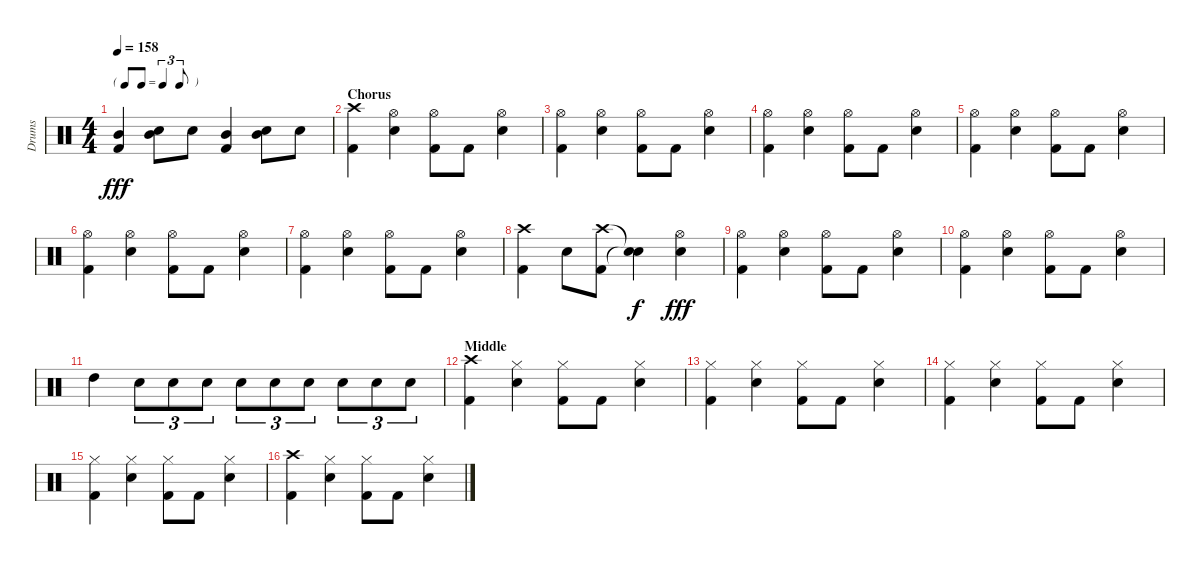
\track ("Drums" "Drums") {instrument percussion}
\staff {score}
\articulation defaults
\ts (4 4)
\tf triplet8th
\tempo 158
\clef neutral
\ks c
("Mid Tom (hit)" "Kick (hit) 2").4{dy fff} ("Mid Tom (hit)" "Snare (hit) 2").8 "Snare (hit) 2".8 ("Mid Tom (hit)" "Kick (hit) 2").4 ("Mid Tom (hit)" "Snare (hit) 2").8 "Snare (hit) 2".8 |
\section ("" "Chorus")
("Crash high (hit)" "Kick (hit) 2").4 ("Hi-Hat (open)" "Snare (hit) 2").4 ("Hi-Hat (open)" "Kick (hit) 2").8 "Kick (hit) 2".8 ("Hi-Hat (open)" "Snare (hit) 2").4 |
("Hi-Hat (open)" "Kick (hit) 2").4 ("Hi-Hat (open)" "Snare (hit) 2").4 ("Hi-Hat (open)" "Kick (hit) 2").8 "Kick (hit) 2".8 ("Hi-Hat (open)" "Snare (hit) 2").4 |
("Hi-Hat (open)" "Kick (hit) 2").4 ("Hi-Hat (open)" "Snare (hit) 2").4 ("Hi-Hat (open)" "Kick (hit) 2").8 "Kick (hit) 2".8 ("Hi-Hat (open)" "Snare (hit) 2").4 |
("Hi-Hat (open)" "Kick (hit) 2").4 ("Hi-Hat (open)" "Snare (hit) 2").4 ("Hi-Hat (open)" "Kick (hit) 2").8 "Kick (hit) 2".8 ("Hi-Hat (open)" "Snare (hit) 2").4 |
("Hi-Hat (open)" "Kick (hit) 2").4 ("Hi-Hat (open)" "Snare (hit) 2").4 ("Hi-Hat (open)" "Kick (hit) 2").8 "Kick (hit) 2".8 ("Hi-Hat (open)" "Snare (hit) 2").4 |
("Hi-Hat (open)" "Kick (hit) 2").4 ("Hi-Hat (open)" "Snare (hit) 2").4 ("Hi-Hat (open)" "Kick (hit) 2").8 "Kick (hit) 2".8 ("Hi-Hat (open)" "Snare (hit) 2").4 |
("Crash high (hit)" "Kick (hit) 2").4 "Snare (hit) 2".8 ("Crash high (hit)" "Kick (hit) 2").8 ("Snare (hit)"{t} "Snare (hit)"{t}).4{dy f} ("Hi-Hat (open)" "Snare (hit) 2").4{dy fff} |
("Hi-Hat (open)" "Kick (hit) 2").4 ("Hi-Hat (open)" "Snare (hit) 2").4 ("Hi-Hat (open)" "Kick (hit) 2").8 "Kick (hit) 2".8 ("Hi-Hat (open)" "Snare (hit) 2").4 |
("Hi-Hat (open)" "Kick (hit) 2").4 ("Hi-Hat (open)" "Snare (hit) 2").4 ("Hi-Hat (open)" "Kick (hit) 2").8 "Kick (hit) 2".8 ("Hi-Hat (open)" "Snare (hit) 2").4 |
"High Tom (hit)".4 "Snare (hit) 2".8{tu (3 2)} "Snare (hit) 2".8{tu (3 2)} "Snare (hit) 2".8{tu (3 2)} "Snare (hit) 2".8{tu (3 2)} "Snare (hit) 2".8{tu (3 2)} "Snare (hit) 2".8{tu (3 2)} "Snare (hit) 2".8{tu (3 2)} "Snare (hit) 2".8{tu (3 2)} "Snare (hit) 2".8{tu (3 2)} |
\section ("" "Middle")
("Crash high (hit)" "Kick (hit) 2").4 ("Hi-Hat (closed)" "Snare (hit) 2").4 ("Hi-Hat (closed)" "Kick (hit) 2").8 "Kick (hit) 2".8 ("Hi-Hat (closed)" "Snare (hit) 2").4 |
("Hi-Hat (closed)" "Kick (hit) 2").4 ("Hi-Hat (closed)" "Snare (hit) 2").4 ("Hi-Hat (closed)" "Kick (hit) 2").8 "Kick (hit) 2".8 ("Hi-Hat (closed)" "Snare (hit) 2").4 |
("Hi-Hat (closed)" "Kick (hit) 2").4 ("Hi-Hat (closed)" "Snare (hit) 2").4 ("Hi-Hat (closed)" "Kick (hit) 2").8 "Kick (hit) 2".8 ("Hi-Hat (closed)" "Snare (hit) 2").4 |
("Hi-Hat (closed)" "Kick (hit) 2").4 ("Hi-Hat (closed)" "Snare (hit) 2").4 ("Hi-Hat (closed)" "Kick (hit) 2").8 "Kick (hit) 2".8 ("Hi-Hat (closed)" "Snare (hit) 2").4 |
("Crash high (hit)" "Kick (hit) 2").4 ("Hi-Hat (closed)" "Snare (hit) 2").4 ("Hi-Hat (closed)" "Kick (hit) 2").8 "Kick (hit) 2".8 ("Hi-Hat (closed)" "Snare (hit) 2").4
